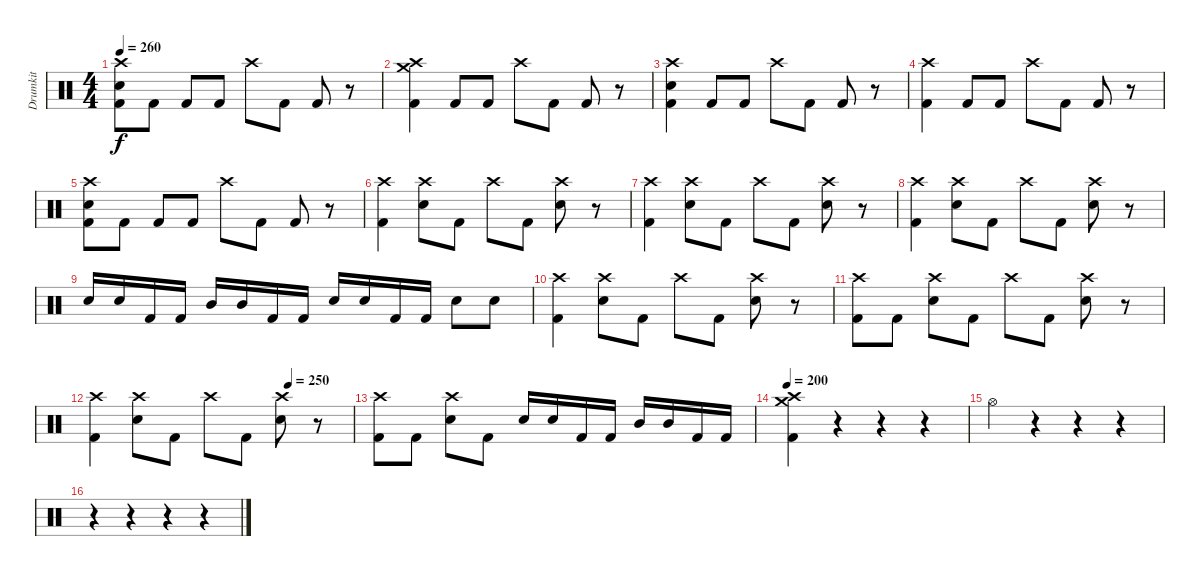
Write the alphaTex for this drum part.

\track ("Drumkit" "Drumkit") {instrument percussion}
\staff {score}
\articulation defaults
\ts (4 4)
\tempo 260
\clef neutral
\ks c
("Crash high (hit)" "Electric Snare (hit)" "Kick (hit) 2").8{dy f} "Kick (hit) 2".8 "Kick (hit) 2".8 "Kick (hit) 2".8 "Crash high (hit)".8 "Kick (hit) 2".8 "Kick (hit) 2".8 r.8 |
("Crash medium (hit)" "Crash high (hit)" "Kick (hit) 2").4 "Kick (hit) 2".8 "Kick (hit) 2".8 "Crash high (hit)".8 "Kick (hit) 2".8 "Kick (hit) 2".8 r.8 |
("Crash high (hit)" "Electric Snare (hit)" "Kick (hit) 2").4 "Kick (hit) 2".8 "Kick (hit) 2".8 "Crash high (hit)".8 "Kick (hit) 2".8 "Kick (hit) 2".8 r.8 |
("Crash high (hit)" "Kick (hit) 2").4 "Kick (hit) 2".8 "Kick (hit) 2".8 "Crash high (hit)".8 "Kick (hit) 2".8 "Kick (hit) 2".8 r.8 |
("Crash high (hit)" "Electric Snare (hit)" "Kick (hit) 2").8 "Kick (hit) 2".8 "Kick (hit) 2".8 "Kick (hit) 2".8 "Crash high (hit)".8 "Kick (hit) 2".8 "Kick (hit) 2".8 r.8 |
("Crash high (hit)" "Kick (hit) 2").4 ("Crash high (hit)" "Electric Snare (hit)").8 "Kick (hit) 2".8 "Crash high (hit)".8 "Kick (hit) 2".8 ("Crash high (hit)" "Electric Snare (hit)").8 r.8 |
("Crash high (hit)" "Kick (hit) 2").4 ("Crash high (hit)" "Electric Snare (hit)").8 "Kick (hit) 2".8 "Crash high (hit)".8 "Kick (hit) 2".8 ("Crash high (hit)" "Electric Snare (hit)").8 r.8 |
("Crash high (hit)" "Kick (hit) 2").4 ("Crash high (hit)" "Electric Snare (hit)").8 "Kick (hit) 2".8 "Crash high (hit)".8 "Kick (hit) 2".8 ("Crash high (hit)" "Electric Snare (hit)").8 r.8 |
"Electric Snare (hit)".16 "Electric Snare (hit)".16 "Kick (hit) 2".16 "Kick (hit) 2".16 "Mid Tom (hit)".16 "Mid Tom (hit)".16 "Kick (hit) 2".16 "Kick (hit) 2".16 "Electric Snare (hit)".16 "Electric Snare (hit)".16 "Kick (hit) 2".16 "Kick (hit) 2".16 "Electric Snare (hit)".8 "Electric Snare (hit)".8 |
("Crash high (hit)" "Kick (hit) 2").4 ("Crash high (hit)" "Electric Snare (hit)").8 "Kick (hit) 2".8 "Crash high (hit)".8 "Kick (hit) 2".8 ("Crash high (hit)" "Electric Snare (hit)").8 r.8 |
("Crash high (hit)" "Kick (hit) 2").8 "Kick (hit) 2".8 ("Crash high (hit)" "Electric Snare (hit)").8 "Kick (hit) 2".8 "Crash high (hit)".8 "Kick (hit) 2".8 ("Crash high (hit)" "Electric Snare (hit)").8 r.8 |
\tempo (250 0.75)
("Crash high (hit)" "Kick (hit) 2").4 ("Crash high (hit)" "Electric Snare (hit)").8 "Kick (hit) 2".8 "Crash high (hit)".8 "Kick (hit) 2".8 ("Crash high (hit)" "Electric Snare (hit)").8 r.8 |
("Crash high (hit)" "Kick (hit) 2").8 "Kick (hit) 2".8 ("Crash high (hit)" "Electric Snare (hit)").8 "Kick (hit) 2".8 "Electric Snare (hit)".16 "Electric Snare (hit)".16 "Kick (hit) 2".16 "Kick (hit) 2".16 "Mid Tom (hit)".16 "Mid Tom (hit)".16 "Kick (hit) 2".16 "Kick (hit) 2".16 |
\tempo 200
("Crash medium (hit)" "Crash high (hit)" "Kick (hit) 2").4 r.4 r.4 r.4 |
"Hi-Hat (open)".4 r.4 r.4 r.4 |
r.4 r.4 r.4 r.4
